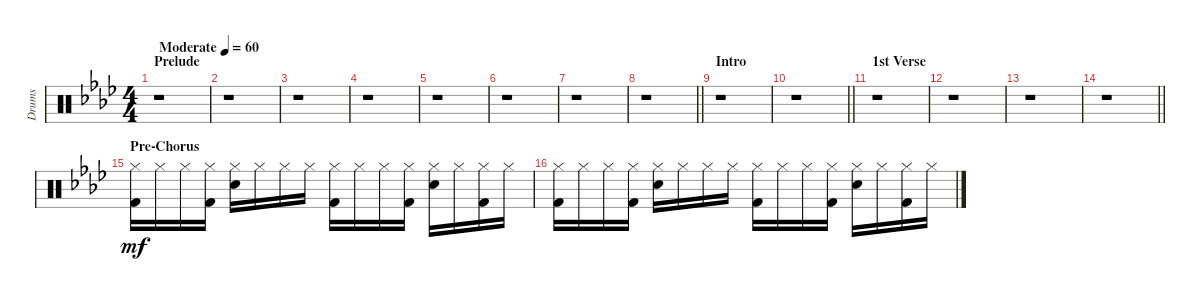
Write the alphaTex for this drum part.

\track ("Drums" "Drums") {instrument percussion}
\staff {score}
\articulation defaults
\ts (4 4)
\section ("" "Prelude")
\tempo (60 "Moderate")
\clef neutral
\ks fminor
r.1{dy mf} |
r.1 |
r.1 |
r.1 |
r.1 |
r.1 |
r.1 |
\barLineRight lightlight
r.1 |
\section ("" "Intro")
r.1 |
\barLineRight lightlight
r.1 |
\section ("" "1st Verse")
r.1 |
r.1 |
r.1 |
\barLineRight lightlight
r.1 |
\section ("" "Pre-Chorus")
("Hi-Hat (closed)" "Kick (hit) 2").16 "Hi-Hat (closed)".16 "Hi-Hat (closed)".16 ("Hi-Hat (closed)" "Kick (hit) 2").16 ("Hi-Hat (closed)" "Snare (hit) 2").16 "Hi-Hat (closed)".16 "Hi-Hat (closed)".16 "Hi-Hat (closed)".16 ("Hi-Hat (closed)" "Kick (hit) 2").16 "Hi-Hat (closed)".16 "Hi-Hat (closed)".16 ("Hi-Hat (closed)" "Kick (hit) 2").16 ("Hi-Hat (closed)" "Snare (hit) 2").16 "Hi-Hat (closed)".16 ("Hi-Hat (closed)" "Kick (hit) 2").16 "Hi-Hat (closed)".16 |
("Hi-Hat (closed)" "Kick (hit) 2").16 "Hi-Hat (closed)".16 "Hi-Hat (closed)".16 ("Hi-Hat (closed)" "Kick (hit) 2").16 ("Hi-Hat (closed)" "Snare (hit) 2").16 "Hi-Hat (closed)".16 "Hi-Hat (closed)".16 "Hi-Hat (closed)".16 ("Hi-Hat (closed)" "Kick (hit) 2").16 "Hi-Hat (closed)".16 "Hi-Hat (closed)".16 ("Hi-Hat (closed)" "Kick (hit) 2").16 ("Hi-Hat (closed)" "Snare (hit) 2").16 "Hi-Hat (closed)".16 ("Hi-Hat (closed)" "Kick (hit) 2").16 "Hi-Hat (closed)".16
